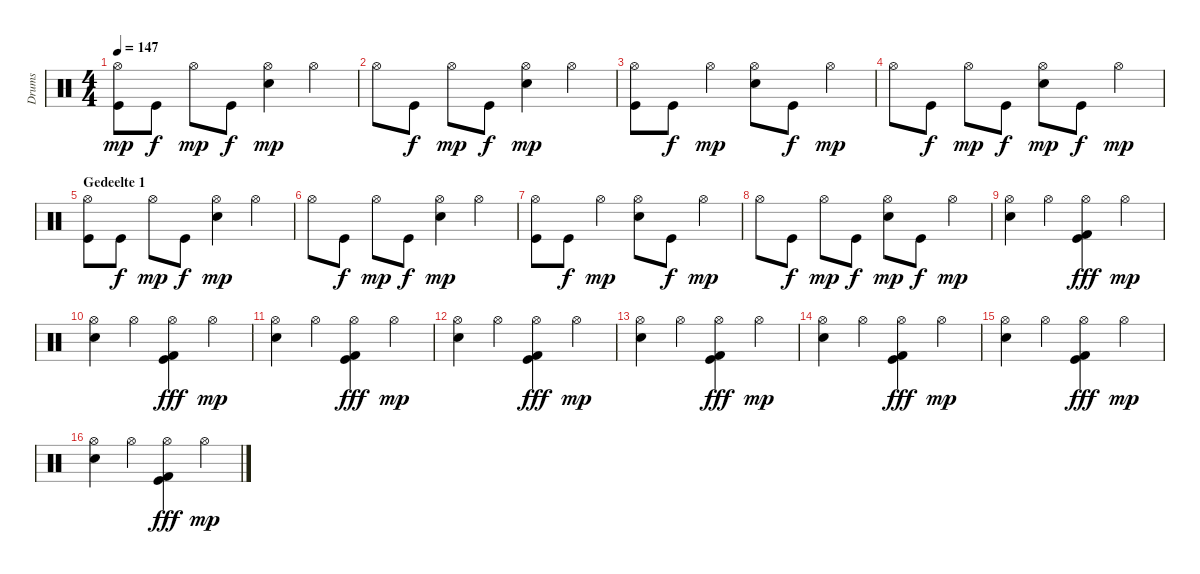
\track ("Drums" "Drums") {instrument percussion}
\staff {score}
\articulation defaults
\ts (4 4)
\tempo 147
\clef neutral
\ks c
("Hi-Hat (open)" "Kick (hit)").8{dy mp} "Kick (hit)".8{dy f} "Hi-Hat (open)".8{dy mp} "Kick (hit)".8{dy f} ("Hi-Hat (open)" "Snare (hit) 2").4{dy mp} "Hi-Hat (open)".4 |
"Hi-Hat (open)".8 "Kick (hit)".8{dy f} "Hi-Hat (open)".8{dy mp} "Kick (hit)".8{dy f} ("Hi-Hat (open)" "Snare (hit) 2").4{dy mp} "Hi-Hat (open)".4 |
("Hi-Hat (open)" "Kick (hit)").8 "Kick (hit)".8{dy f} "Hi-Hat (open)".4{dy mp} ("Hi-Hat (open)" "Snare (hit) 2").8 "Kick (hit)".8{dy f} "Hi-Hat (open)".4{dy mp} |
"Hi-Hat (open)".8 "Kick (hit)".8{dy f} "Hi-Hat (open)".8{dy mp} "Kick (hit)".8{dy f} ("Hi-Hat (open)" "Snare (hit) 2").8{dy mp} "Kick (hit)".8{dy f} "Hi-Hat (open)".4{dy mp} |
\section ("" "Gedeelte 1")
("Hi-Hat (open)" "Kick (hit)").8 "Kick (hit)".8{dy f} "Hi-Hat (open)".8{dy mp} "Kick (hit)".8{dy f} ("Hi-Hat (open)" "Snare (hit) 2").4{dy mp} "Hi-Hat (open)".4 |
"Hi-Hat (open)".8 "Kick (hit)".8{dy f} "Hi-Hat (open)".8{dy mp} "Kick (hit)".8{dy f} ("Hi-Hat (open)" "Snare (hit) 2").4{dy mp} "Hi-Hat (open)".4 |
("Hi-Hat (open)" "Kick (hit)").8 "Kick (hit)".8{dy f} "Hi-Hat (open)".4{dy mp} ("Hi-Hat (open)" "Snare (hit) 2").8 "Kick (hit)".8{dy f} "Hi-Hat (open)".4{dy mp} |
"Hi-Hat (open)".8 "Kick (hit)".8{dy f} "Hi-Hat (open)".8{dy mp} "Kick (hit)".8{dy f} ("Hi-Hat (open)" "Snare (hit) 2").8{dy mp} "Kick (hit)".8{dy f} "Hi-Hat (open)".4{dy mp} |
("Electric Snare (hit)" "Hi-Hat (open)").4 "Hi-Hat (open)".4 ("Kick (hit)" "Hi-Hat (open)" "Kick (hit) 2").4{dy fff} "Hi-Hat (open)".4{dy mp} |
("Electric Snare (hit)" "Hi-Hat (open)").4 "Hi-Hat (open)".4 ("Kick (hit)" "Hi-Hat (open)" "Kick (hit) 2").4{dy fff} "Hi-Hat (open)".4{dy mp} |
("Electric Snare (hit)" "Hi-Hat (open)").4 "Hi-Hat (open)".4 ("Kick (hit)" "Hi-Hat (open)" "Kick (hit) 2").4{dy fff} "Hi-Hat (open)".4{dy mp} |
("Electric Snare (hit)" "Hi-Hat (open)").4 "Hi-Hat (open)".4 ("Kick (hit)" "Hi-Hat (open)" "Kick (hit) 2").4{dy fff} "Hi-Hat (open)".4{dy mp} |
("Electric Snare (hit)" "Hi-Hat (open)").4 "Hi-Hat (open)".4 ("Kick (hit)" "Hi-Hat (open)" "Kick (hit) 2").4{dy fff} "Hi-Hat (open)".4{dy mp} |
("Electric Snare (hit)" "Hi-Hat (open)").4 "Hi-Hat (open)".4 ("Kick (hit)" "Hi-Hat (open)" "Kick (hit) 2").4{dy fff} "Hi-Hat (open)".4{dy mp} |
("Electric Snare (hit)" "Hi-Hat (open)").4 "Hi-Hat (open)".4 ("Kick (hit)" "Hi-Hat (open)" "Kick (hit) 2").4{dy fff} "Hi-Hat (open)".4{dy mp} |
("Electric Snare (hit)" "Hi-Hat (open)").4 "Hi-Hat (open)".4 ("Kick (hit)" "Hi-Hat (open)" "Kick (hit) 2").4{dy fff} "Hi-Hat (open)".4{dy mp}
